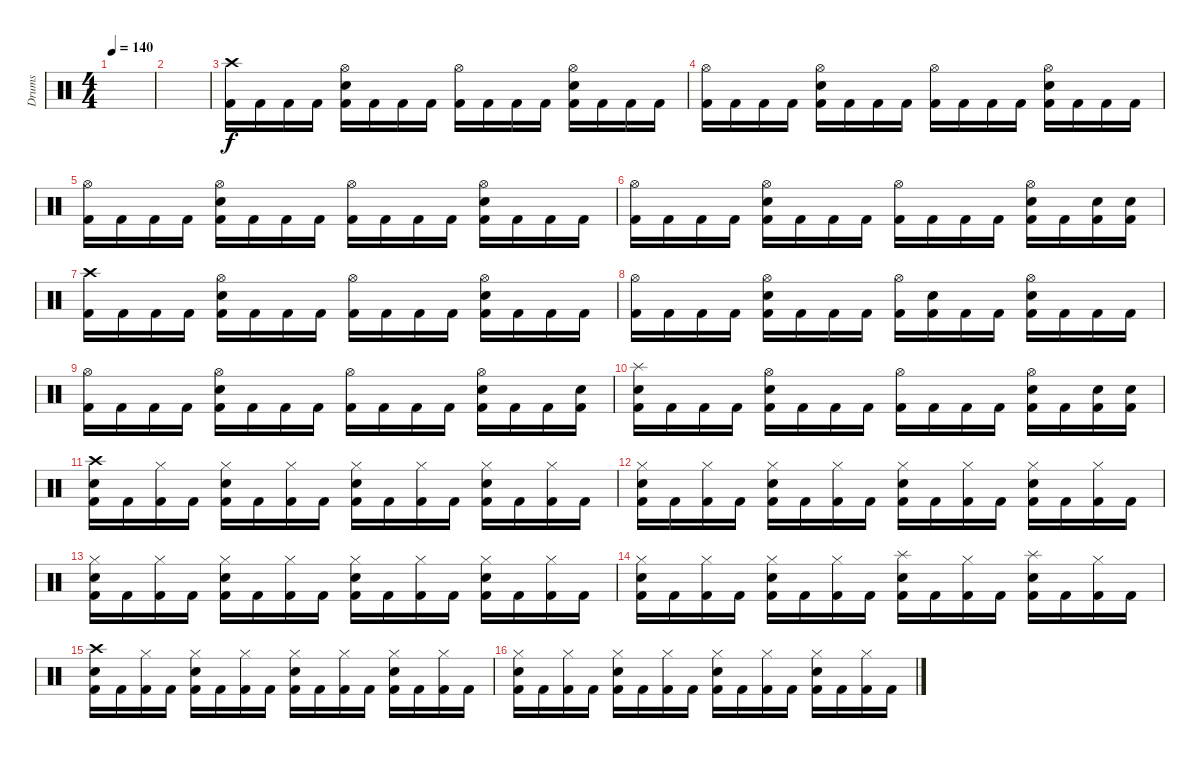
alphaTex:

\track ("Drums" "Drums") {instrument percussion}
\staff {score}
\articulation defaults
\ts (4 4)
\tempo 140
\clef neutral
\ks c
|
|
("Kick (hit) 2" "Crash high (hit)").16 "Kick (hit) 2".16 "Kick (hit) 2".16 "Kick (hit) 2".16 ("Kick (hit) 2" "Electric Snare (hit)" "Hi-Hat (open)").16 "Kick (hit) 2".16 "Kick (hit) 2".16 "Kick (hit) 2".16 ("Kick (hit) 2" "Hi-Hat (open)").16 "Kick (hit) 2".16 "Kick (hit) 2".16 "Kick (hit) 2".16 ("Kick (hit) 2" "Electric Snare (hit)" "Hi-Hat (open)").16 "Kick (hit) 2".16 "Kick (hit) 2".16 "Kick (hit) 2".16 |
("Kick (hit) 2" "Hi-Hat (open)").16 "Kick (hit) 2".16 "Kick (hit) 2".16 "Kick (hit) 2".16 ("Kick (hit) 2" "Electric Snare (hit)" "Hi-Hat (open)").16 "Kick (hit) 2".16 "Kick (hit) 2".16 "Kick (hit) 2".16 ("Kick (hit) 2" "Hi-Hat (open)").16 "Kick (hit) 2".16 "Kick (hit) 2".16 "Kick (hit) 2".16 ("Kick (hit) 2" "Electric Snare (hit)" "Hi-Hat (open)").16 "Kick (hit) 2".16 "Kick (hit) 2".16 "Kick (hit) 2".16 |
("Kick (hit) 2" "Hi-Hat (open)").16 "Kick (hit) 2".16 "Kick (hit) 2".16 "Kick (hit) 2".16 ("Kick (hit) 2" "Electric Snare (hit)" "Hi-Hat (open)").16 "Kick (hit) 2".16 "Kick (hit) 2".16 "Kick (hit) 2".16 ("Kick (hit) 2" "Hi-Hat (open)").16 "Kick (hit) 2".16 "Kick (hit) 2".16 "Kick (hit) 2".16 ("Kick (hit) 2" "Electric Snare (hit)" "Hi-Hat (open)").16 "Kick (hit) 2".16 "Kick (hit) 2".16 "Kick (hit) 2".16 |
("Kick (hit) 2" "Hi-Hat (open)").16 "Kick (hit) 2".16 "Kick (hit) 2".16 "Kick (hit) 2".16 ("Kick (hit) 2" "Electric Snare (hit)" "Hi-Hat (open)").16 "Kick (hit) 2".16 "Kick (hit) 2".16 "Kick (hit) 2".16 ("Kick (hit) 2" "Hi-Hat (open)").16 "Kick (hit) 2".16 "Kick (hit) 2".16 "Kick (hit) 2".16 ("Kick (hit) 2" "Electric Snare (hit)" "Hi-Hat (open)").16 "Kick (hit) 2".16 ("Kick (hit) 2" "Electric Snare (hit)").16 ("Kick (hit) 2" "Electric Snare (hit)").16 |
("Kick (hit) 2" "Crash high (hit)").16 "Kick (hit) 2".16 "Kick (hit) 2".16 "Kick (hit) 2".16 ("Kick (hit) 2" "Electric Snare (hit)" "Hi-Hat (open)").16 "Kick (hit) 2".16 "Kick (hit) 2".16 "Kick (hit) 2".16 ("Kick (hit) 2" "Hi-Hat (open)").16 "Kick (hit) 2".16 "Kick (hit) 2".16 "Kick (hit) 2".16 ("Kick (hit) 2" "Electric Snare (hit)" "Hi-Hat (open)").16 "Kick (hit) 2".16 "Kick (hit) 2".16 "Kick (hit) 2".16 |
("Kick (hit) 2" "Hi-Hat (open)").16 "Kick (hit) 2".16 "Kick (hit) 2".16 "Kick (hit) 2".16 ("Kick (hit) 2" "Electric Snare (hit)" "Hi-Hat (open)").16 "Kick (hit) 2".16 "Kick (hit) 2".16 "Kick (hit) 2".16 ("Kick (hit) 2" "Hi-Hat (open)").16 ("Kick (hit) 2" "Electric Snare (hit)").16 "Kick (hit) 2".16 "Kick (hit) 2".16 ("Kick (hit) 2" "Electric Snare (hit)" "Hi-Hat (open)").16 "Kick (hit) 2".16 "Kick (hit) 2".16 "Kick (hit) 2".16 |
("Kick (hit) 2" "Hi-Hat (open)").16 "Kick (hit) 2".16 "Kick (hit) 2".16 "Kick (hit) 2".16 ("Kick (hit) 2" "Electric Snare (hit)" "Hi-Hat (open)").16 "Kick (hit) 2".16 "Kick (hit) 2".16 "Kick (hit) 2".16 ("Kick (hit) 2" "Hi-Hat (open)").16 "Kick (hit) 2".16 "Kick (hit) 2".16 "Kick (hit) 2".16 ("Kick (hit) 2" "Electric Snare (hit)" "Hi-Hat (open)").16 "Kick (hit) 2".16 "Kick (hit) 2".16 ("Kick (hit) 2" "Electric Snare (hit)").16 |
("Kick (hit) 2" "Electric Snare (hit)" "Splash (hit)").16 "Kick (hit) 2".16 "Kick (hit) 2".16 "Kick (hit) 2".16 ("Kick (hit) 2" "Electric Snare (hit)" "Hi-Hat (open)").16 "Kick (hit) 2".16 "Kick (hit) 2".16 "Kick (hit) 2".16 ("Kick (hit) 2" "Hi-Hat (open)").16 "Kick (hit) 2".16 "Kick (hit) 2".16 "Kick (hit) 2".16 ("Kick (hit) 2" "Electric Snare (hit)" "Hi-Hat (open)").16 "Kick (hit) 2".16 ("Kick (hit) 2" "Electric Snare (hit)").16 ("Kick (hit) 2" "Electric Snare (hit)").16 |
("Kick (hit) 2" "Electric Snare (hit)" "Crash high (hit)").16 "Kick (hit) 2".16 ("Kick (hit) 2" "Hi-Hat (closed)").16 "Kick (hit) 2".16 ("Kick (hit) 2" "Electric Snare (hit)" "Hi-Hat (closed)").16 "Kick (hit) 2".16 ("Kick (hit) 2" "Hi-Hat (closed)").16 "Kick (hit) 2".16 ("Kick (hit) 2" "Electric Snare (hit)" "Hi-Hat (closed)").16 "Kick (hit) 2".16 ("Kick (hit) 2" "Hi-Hat (closed)").16 "Kick (hit) 2".16 ("Kick (hit) 2" "Electric Snare (hit)" "Hi-Hat (closed)").16 "Kick (hit) 2".16 ("Kick (hit) 2" "Hi-Hat (closed)").16 "Kick (hit) 2".16 |
("Kick (hit) 2" "Electric Snare (hit)" "Hi-Hat (closed)").16 "Kick (hit) 2".16 ("Kick (hit) 2" "Hi-Hat (closed)").16 "Kick (hit) 2".16 ("Kick (hit) 2" "Electric Snare (hit)" "Hi-Hat (closed)").16 "Kick (hit) 2".16 ("Kick (hit) 2" "Hi-Hat (closed)").16 "Kick (hit) 2".16 ("Kick (hit) 2" "Electric Snare (hit)" "Hi-Hat (closed)").16 "Kick (hit) 2".16 ("Kick (hit) 2" "Hi-Hat (closed)").16 "Kick (hit) 2".16 ("Kick (hit) 2" "Electric Snare (hit)" "Hi-Hat (closed)").16 "Kick (hit) 2".16 ("Kick (hit) 2" "Hi-Hat (closed)").16 "Kick (hit) 2".16 |
("Kick (hit) 2" "Electric Snare (hit)" "Hi-Hat (closed)").16 "Kick (hit) 2".16 ("Kick (hit) 2" "Hi-Hat (closed)").16 "Kick (hit) 2".16 ("Kick (hit) 2" "Electric Snare (hit)" "Hi-Hat (closed)").16 "Kick (hit) 2".16 ("Kick (hit) 2" "Hi-Hat (closed)").16 "Kick (hit) 2".16 ("Kick (hit) 2" "Electric Snare (hit)" "Hi-Hat (closed)").16 "Kick (hit) 2".16 ("Kick (hit) 2" "Hi-Hat (closed)").16 "Kick (hit) 2".16 ("Kick (hit) 2" "Electric Snare (hit)" "Hi-Hat (closed)").16 "Kick (hit) 2".16 ("Kick (hit) 2" "Hi-Hat (closed)").16 "Kick (hit) 2".16 |
("Kick (hit) 2" "Electric Snare (hit)" "Hi-Hat (closed)").16 "Kick (hit) 2".16 ("Kick (hit) 2" "Hi-Hat (closed)").16 "Kick (hit) 2".16 ("Kick (hit) 2" "Electric Snare (hit)" "Hi-Hat (closed)").16 "Kick (hit) 2".16 ("Kick (hit) 2" "Hi-Hat (closed)").16 "Kick (hit) 2".16 ("Kick (hit) 2" "Electric Snare (hit)" "Splash (hit)").16 "Kick (hit) 2".16 ("Kick (hit) 2" "Hi-Hat (closed)").16 "Kick (hit) 2".16 ("Kick (hit) 2" "Electric Snare (hit)" "Splash (hit)").16 "Kick (hit) 2".16 ("Kick (hit) 2" "Hi-Hat (closed)").16 "Kick (hit) 2".16 |
("Kick (hit) 2" "Electric Snare (hit)" "Crash high (hit)").16 "Kick (hit) 2".16 ("Kick (hit) 2" "Hi-Hat (closed)").16 "Kick (hit) 2".16 ("Kick (hit) 2" "Electric Snare (hit)" "Hi-Hat (closed)").16 "Kick (hit) 2".16 ("Kick (hit) 2" "Hi-Hat (closed)").16 "Kick (hit) 2".16 ("Kick (hit) 2" "Electric Snare (hit)" "Hi-Hat (closed)").16 "Kick (hit) 2".16 ("Kick (hit) 2" "Hi-Hat (closed)").16 "Kick (hit) 2".16 ("Kick (hit) 2" "Electric Snare (hit)" "Hi-Hat (closed)").16 "Kick (hit) 2".16 ("Kick (hit) 2" "Hi-Hat (closed)").16 "Kick (hit) 2".16 |
("Kick (hit) 2" "Electric Snare (hit)" "Hi-Hat (closed)").16 "Kick (hit) 2".16 ("Kick (hit) 2" "Hi-Hat (closed)").16 "Kick (hit) 2".16 ("Kick (hit) 2" "Electric Snare (hit)" "Hi-Hat (closed)").16 "Kick (hit) 2".16 ("Kick (hit) 2" "Hi-Hat (closed)").16 "Kick (hit) 2".16 ("Kick (hit) 2" "Electric Snare (hit)" "Hi-Hat (closed)").16 "Kick (hit) 2".16 ("Kick (hit) 2" "Hi-Hat (closed)").16 "Kick (hit) 2".16 ("Kick (hit) 2" "Electric Snare (hit)" "Hi-Hat (closed)").16 "Kick (hit) 2".16 ("Kick (hit) 2" "Hi-Hat (closed)").16 "Kick (hit) 2".16
